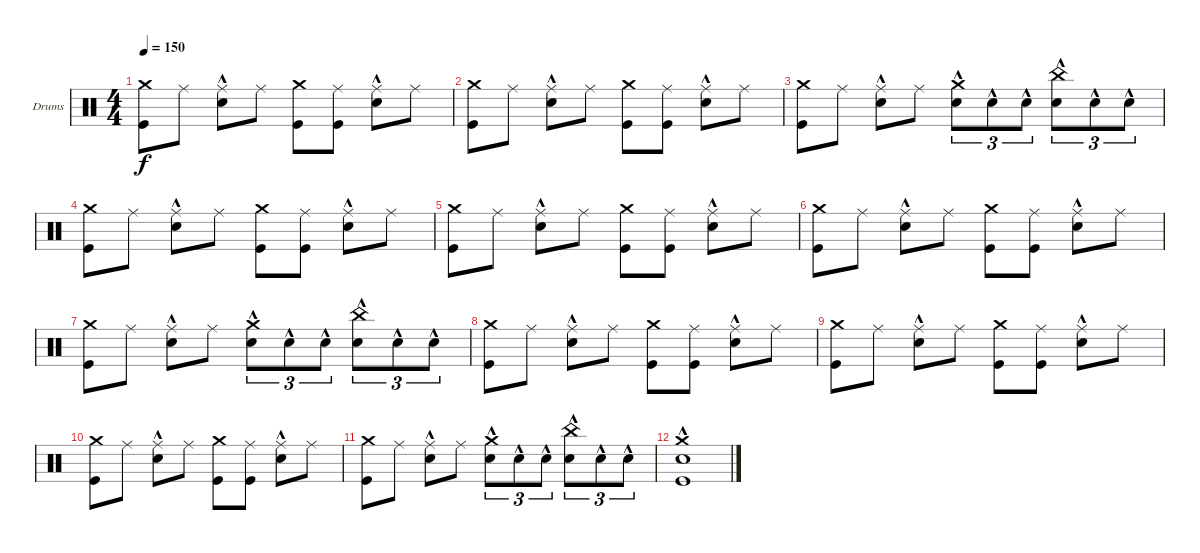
\bracketExtendMode groupsimilarinstruments
\firstSystemTrackNameOrientation horizontal
\otherSystemsTrackNameOrientation horizontal
\track ("Drumkit" "Drums") {instrument percussion}
\staff {score}
\articulation defaults
\ts (4 4)
\tempo 150
\clef neutral
\ks c
("Crash medium (hit)" "Kick (hit)").8{dy f} "Ride (middle)".8 ("Ride (middle)" "Snare (hit) 2"{hac}).8 "Ride (middle)".8 ("Kick (hit)" "Crash medium (hit)").8 ("Ride (middle)" "Kick (hit)").8 ("Ride (middle)" "Snare (hit) 2"{hac}).8 "Ride (middle)".8 |
("Crash medium (hit)" "Kick (hit)").8 "Ride (middle)".8 ("Ride (middle)" "Snare (hit) 2"{hac}).8 "Ride (middle)".8 ("Kick (hit)" "Crash medium (hit)").8 ("Ride (middle)" "Kick (hit)").8 ("Ride (middle)" "Snare (hit) 2"{hac}).8 "Ride (middle)".8 |
("Crash medium (hit)" "Kick (hit)").8 "Ride (middle)".8 ("Ride (middle)" "Snare (hit) 2"{hac}).8 "Ride (middle)".8 ("Snare (hit) 2"{hac} "Crash medium (hit)").8{tu (3 2)} "Snare (hit) 2"{hac}.8{tu (3 2)} "Snare (hit) 2"{hac}.8{tu (3 2)} ("Snare (hit) 2"{hac} "China (hit)").8{tu (3 2)} "Snare (hit) 2"{hac}.8{tu (3 2)} "Snare (hit) 2"{hac}.8{tu (3 2)} |
("Crash medium (hit)" "Kick (hit)").8 "Ride (middle)".8 ("Ride (middle)" "Snare (hit) 2"{hac}).8 "Ride (middle)".8 ("Kick (hit)" "Crash medium (hit)").8 ("Ride (middle)" "Kick (hit)").8 ("Ride (middle)" "Snare (hit) 2"{hac}).8 "Ride (middle)".8 |
("Crash medium (hit)" "Kick (hit)").8 "Ride (middle)".8 ("Ride (middle)" "Snare (hit) 2"{hac}).8 "Ride (middle)".8 ("Kick (hit)" "Crash medium (hit)").8 ("Ride (middle)" "Kick (hit)").8 ("Ride (middle)" "Snare (hit) 2"{hac}).8 "Ride (middle)".8 |
("Crash medium (hit)" "Kick (hit)").8 "Ride (middle)".8 ("Ride (middle)" "Snare (hit) 2"{hac}).8 "Ride (middle)".8 ("Kick (hit)" "Crash medium (hit)").8 ("Ride (middle)" "Kick (hit)").8 ("Ride (middle)" "Snare (hit) 2"{hac}).8 "Ride (middle)".8 |
("Crash medium (hit)" "Kick (hit)").8 "Ride (middle)".8 ("Ride (middle)" "Snare (hit) 2"{hac}).8 "Ride (middle)".8 ("Snare (hit) 2"{hac} "Crash medium (hit)").8{tu (3 2)} "Snare (hit) 2"{hac}.8{tu (3 2)} "Snare (hit) 2"{hac}.8{tu (3 2)} ("Snare (hit) 2"{hac} "China (hit)").8{tu (3 2)} "Snare (hit) 2"{hac}.8{tu (3 2)} "Snare (hit) 2"{hac}.8{tu (3 2)} |
("Crash medium (hit)" "Kick (hit)").8 "Ride (middle)".8 ("Ride (middle)" "Snare (hit) 2"{hac}).8 "Ride (middle)".8 ("Kick (hit)" "Crash medium (hit)").8 ("Ride (middle)" "Kick (hit)").8 ("Ride (middle)" "Snare (hit) 2"{hac}).8 "Ride (middle)".8 |
("Crash medium (hit)" "Kick (hit)").8 "Ride (middle)".8 ("Ride (middle)" "Snare (hit) 2"{hac}).8 "Ride (middle)".8 ("Kick (hit)" "Crash medium (hit)").8 ("Ride (middle)" "Kick (hit)").8 ("Ride (middle)" "Snare (hit) 2"{hac}).8 "Ride (middle)".8 |
("Crash medium (hit)" "Kick (hit)").8 "Ride (middle)".8 ("Ride (middle)" "Snare (hit) 2"{hac}).8 "Ride (middle)".8 ("Kick (hit)" "Crash medium (hit)").8 ("Ride (middle)" "Kick (hit)").8 ("Ride (middle)" "Snare (hit) 2"{hac}).8 "Ride (middle)".8 |
("Crash medium (hit)" "Kick (hit)").8 "Ride (middle)".8 ("Ride (middle)" "Snare (hit) 2"{hac}).8 "Ride (middle)".8 ("Snare (hit) 2"{hac} "Crash medium (hit)").8{tu (3 2)} "Snare (hit) 2"{hac}.8{tu (3 2)} "Snare (hit) 2"{hac}.8{tu (3 2)} ("Snare (hit) 2"{hac} "China (hit)").8{tu (3 2)} "Snare (hit) 2"{hac}.8{tu (3 2)} "Snare (hit) 2"{hac}.8{tu (3 2)} |
("Kick (hit)"{hac} "Crash medium (hit)"{hac} "Snare (hit) 2"{hac}).1
